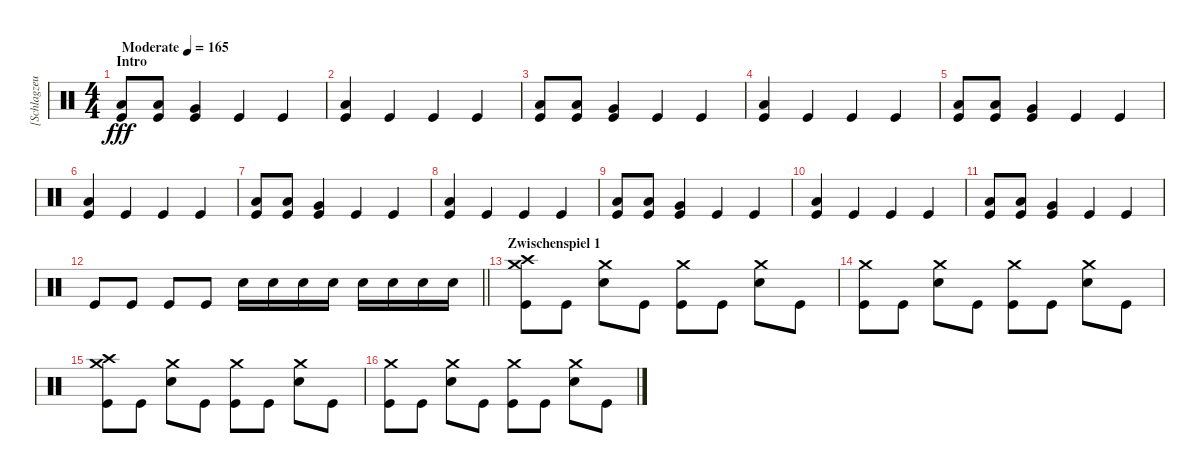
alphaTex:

\track ("[Schlagzeug]" "[Schlagzeu") {instrument percussion}
\staff {score}
\articulation defaults
\ts (4 4)
\section ("" "Intro")
\tempo (165 "Moderate")
\clef neutral
\ks c
("Low Tom (hit)" "Kick (hit)").8{dy fff} ("Low Tom (hit)" "Kick (hit)").8 ("Very Low Tom (hit)" "Kick (hit)").4 "Kick (hit)".4 "Kick (hit)".4 |
("Low Tom (hit)" "Kick (hit)").4 "Kick (hit)".4 "Kick (hit)".4 "Kick (hit)".4 |
("Low Tom (hit)" "Kick (hit)").8 ("Low Tom (hit)" "Kick (hit)").8 ("Very Low Tom (hit)" "Kick (hit)").4 "Kick (hit)".4 "Kick (hit)".4 |
("Low Tom (hit)" "Kick (hit)").4 "Kick (hit)".4 "Kick (hit)".4 "Kick (hit)".4 |
("Low Tom (hit)" "Kick (hit)").8 ("Low Tom (hit)" "Kick (hit)").8 ("Very Low Tom (hit)" "Kick (hit)").4 "Kick (hit)".4 "Kick (hit)".4 |
("Low Tom (hit)" "Kick (hit)").4 "Kick (hit)".4 "Kick (hit)".4 "Kick (hit)".4 |
("Low Tom (hit)" "Kick (hit)").8 ("Low Tom (hit)" "Kick (hit)").8 ("Very Low Tom (hit)" "Kick (hit)").4 "Kick (hit)".4 "Kick (hit)".4 |
("Low Tom (hit)" "Kick (hit)").4 "Kick (hit)".4 "Kick (hit)".4 "Kick (hit)".4 |
("Low Tom (hit)" "Kick (hit)").8 ("Low Tom (hit)" "Kick (hit)").8 ("Very Low Tom (hit)" "Kick (hit)").4 "Kick (hit)".4 "Kick (hit)".4 |
("Low Tom (hit)" "Kick (hit)").4 "Kick (hit)".4 "Kick (hit)".4 "Kick (hit)".4 |
("Low Tom (hit)" "Kick (hit)").8 ("Low Tom (hit)" "Kick (hit)").8 ("Very Low Tom (hit)" "Kick (hit)").4 "Kick (hit)".4 "Kick (hit)".4 |
\barLineRight lightlight "Kick (hit)".8 "Kick (hit)".8 "Kick (hit)".8 "Kick (hit)".8 "Electric Snare (hit)".16 "Electric Snare (hit)".16 "Electric Snare (hit)".16 "Electric Snare (hit)".16 "Electric Snare (hit)".16 "Electric Snare (hit)".16 "Electric Snare (hit)".16 "Electric Snare (hit)".16
|
\section ("" "Zwischenspiel 1")
("Crash high (hit)" "Crash medium (hit)" "Kick (hit)").8 "Kick (hit)".8 ("Crash medium (hit)" "Electric Snare (hit)").8 "Kick (hit)".8 ("Crash medium (hit)" "Kick (hit)").8 "Kick (hit)".8 ("Crash medium (hit)" "Electric Snare (hit)").8 "Kick (hit)".8 |
("Crash medium (hit)" "Kick (hit)").8 "Kick (hit)".8 ("Crash medium (hit)" "Electric Snare (hit)").8 "Kick (hit)".8 ("Crash medium (hit)" "Kick (hit)").8 "Kick (hit)".8 ("Crash medium (hit)" "Electric Snare (hit)").8 "Kick (hit)".8 |
("Crash high (hit)" "Crash medium (hit)" "Kick (hit)").8 "Kick (hit)".8 ("Crash medium (hit)" "Electric Snare (hit)").8 "Kick (hit)".8 ("Crash medium (hit)" "Kick (hit)").8 "Kick (hit)".8 ("Crash medium (hit)" "Electric Snare (hit)").8 "Kick (hit)".8 |
("Crash medium (hit)" "Kick (hit)").8 "Kick (hit)".8 ("Crash medium (hit)" "Electric Snare (hit)").8 "Kick (hit)".8 ("Crash medium (hit)" "Kick (hit)").8 "Kick (hit)".8 ("Crash medium (hit)" "Electric Snare (hit)").8 "Kick (hit)".8
